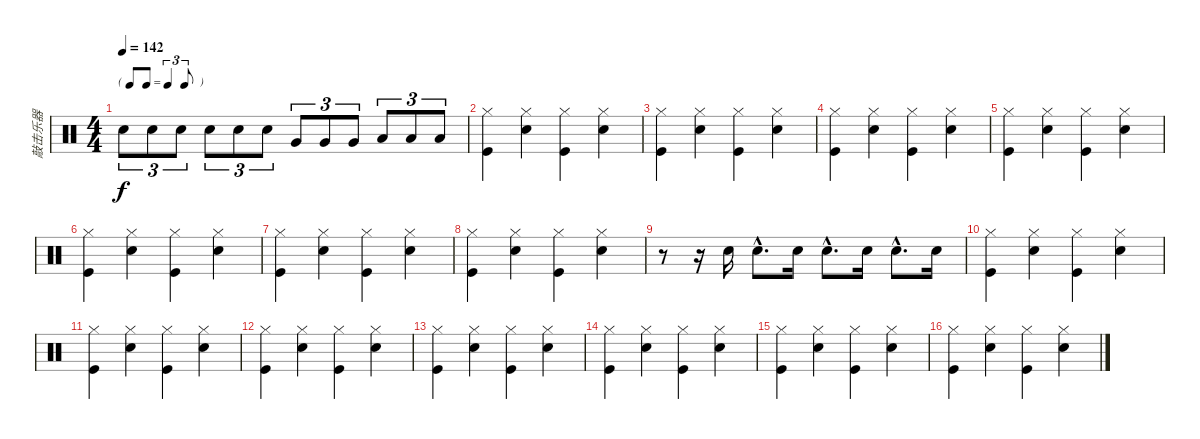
\track ("敲击乐器" "敲击乐器") {instrument percussion}
\staff {score}
\articulation defaults
\ts (4 4)
\tf triplet8th
\tempo 142
\clef neutral
\ks c "Snare (hit) 2".8{tu (3 2) dy f} "Snare (hit) 2".8{tu (3 2)} "Snare (hit) 2".8{tu (3 2)} "Snare (hit) 2".8{tu (3 2)} "Snare (hit) 2".8{tu (3 2)} "Snare (hit) 2".8{tu (3 2)} "Very Low Tom (hit)".8{tu (3 2)} "Very Low Tom (hit)".8{tu (3 2)} "Very Low Tom (hit)".8{tu (3 2)} "Low Floor Tom (hit)".8{tu (3 2)} "Low Floor Tom (hit)".8{tu (3 2)} "Low Floor Tom (hit)".8{tu (3 2)}
|
("Hi-Hat (closed)" "Kick (hit)").4 ("Hi-Hat (closed)" "Electric Snare (hit)").4 ("Hi-Hat (closed)" "Kick (hit)").4 ("Hi-Hat (closed)" "Electric Snare (hit)").4 |
("Hi-Hat (closed)" "Kick (hit)").4 ("Hi-Hat (closed)" "Electric Snare (hit)").4 ("Hi-Hat (closed)" "Kick (hit)").4 ("Hi-Hat (closed)" "Electric Snare (hit)").4 |
("Hi-Hat (closed)" "Kick (hit)").4 ("Hi-Hat (closed)" "Electric Snare (hit)").4 ("Hi-Hat (closed)" "Kick (hit)").4 ("Hi-Hat (closed)" "Electric Snare (hit)").4 |
("Hi-Hat (closed)" "Kick (hit)").4 ("Hi-Hat (closed)" "Electric Snare (hit)").4 ("Hi-Hat (closed)" "Kick (hit)").4 ("Hi-Hat (closed)" "Electric Snare (hit)").4 |
("Hi-Hat (closed)" "Kick (hit)").4 ("Hi-Hat (closed)" "Electric Snare (hit)").4 ("Hi-Hat (closed)" "Kick (hit)").4 ("Hi-Hat (closed)" "Electric Snare (hit)").4 |
("Hi-Hat (closed)" "Kick (hit)").4 ("Hi-Hat (closed)" "Electric Snare (hit)").4 ("Hi-Hat (closed)" "Kick (hit)").4 ("Hi-Hat (closed)" "Electric Snare (hit)").4 |
("Hi-Hat (closed)" "Kick (hit)").4 ("Hi-Hat (closed)" "Electric Snare (hit)").4 ("Hi-Hat (closed)" "Kick (hit)").4 ("Hi-Hat (closed)" "Electric Snare (hit)").4 |
r.8 r.16 "Electric Snare (hit)".16 "Electric Snare (hit)"{hac}.8{d} "Electric Snare (hit)".16 "Electric Snare (hit)"{hac}.8{d} "Electric Snare (hit)".16 "Electric Snare (hit)"{hac}.8{d} "Electric Snare (hit)".16 |
("Hi-Hat (closed)" "Kick (hit)").4 ("Hi-Hat (closed)" "Electric Snare (hit)").4 ("Hi-Hat (closed)" "Kick (hit)").4 ("Hi-Hat (closed)" "Electric Snare (hit)").4 |
("Hi-Hat (closed)" "Kick (hit)").4 ("Hi-Hat (closed)" "Electric Snare (hit)").4 ("Hi-Hat (closed)" "Kick (hit)").4 ("Hi-Hat (closed)" "Electric Snare (hit)").4 |
("Hi-Hat (closed)" "Kick (hit)").4 ("Hi-Hat (closed)" "Electric Snare (hit)").4 ("Hi-Hat (closed)" "Kick (hit)").4 ("Hi-Hat (closed)" "Electric Snare (hit)").4 |
("Hi-Hat (closed)" "Kick (hit)").4 ("Hi-Hat (closed)" "Electric Snare (hit)").4 ("Hi-Hat (closed)" "Kick (hit)").4 ("Hi-Hat (closed)" "Electric Snare (hit)").4 |
("Hi-Hat (closed)" "Kick (hit)").4 ("Hi-Hat (closed)" "Electric Snare (hit)").4 ("Hi-Hat (closed)" "Kick (hit)").4 ("Hi-Hat (closed)" "Electric Snare (hit)").4 |
("Hi-Hat (closed)" "Kick (hit)").4 ("Hi-Hat (closed)" "Electric Snare (hit)").4 ("Hi-Hat (closed)" "Kick (hit)").4 ("Hi-Hat (closed)" "Electric Snare (hit)").4 |
("Hi-Hat (closed)" "Kick (hit)").4 ("Hi-Hat (closed)" "Electric Snare (hit)").4 ("Hi-Hat (closed)" "Kick (hit)").4 ("Hi-Hat (closed)" "Electric Snare (hit)").4
